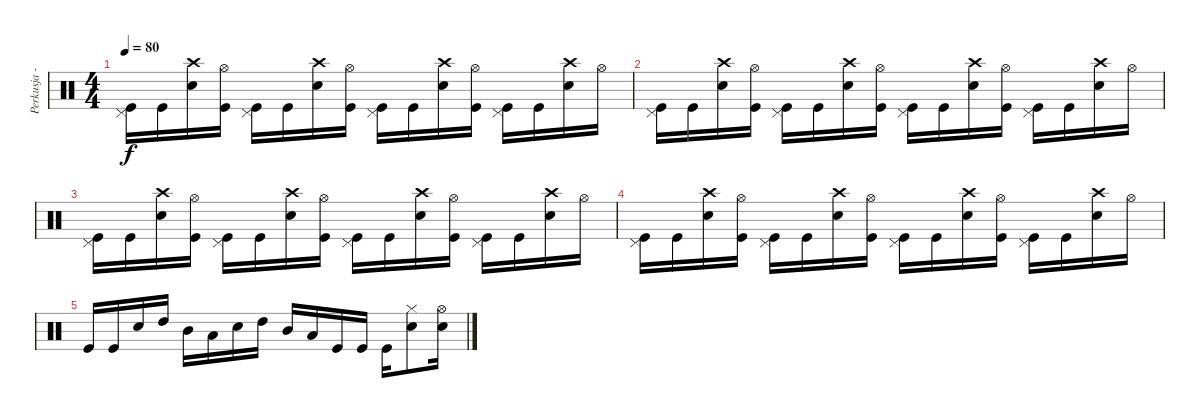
\track ("Perkusja - Krzyzyk" "Perkusja -") {instrument percussion}
\staff {score}
\articulation defaults
\ts (4 4)
\tempo 80
\clef neutral
\ks c
("Pedal Hi-Hat (hit)" "Kick (hit)").16{dy f} "Kick (hit)".16 ("Crash high (hit)" "Snare (hit) 2").16 ("Hi-Hat (open)" "Kick (hit)").16 ("Pedal Hi-Hat (hit)" "Kick (hit)").16 "Kick (hit)".16 ("Crash high (hit)" "Snare (hit) 2").16 ("Hi-Hat (open)" "Kick (hit)").16 ("Pedal Hi-Hat (hit)" "Kick (hit)").16 "Kick (hit)".16 ("Crash high (hit)" "Snare (hit) 2").16 ("Hi-Hat (open)" "Kick (hit)").16 ("Pedal Hi-Hat (hit)" "Kick (hit)").16 "Kick (hit)".16 ("Crash high (hit)" "Snare (hit) 2").16 "Hi-Hat (open)".16 |
("Pedal Hi-Hat (hit)" "Kick (hit)").16 "Kick (hit)".16 ("Crash high (hit)" "Snare (hit) 2").16 ("Hi-Hat (open)" "Kick (hit)").16 ("Pedal Hi-Hat (hit)" "Kick (hit)").16 "Kick (hit)".16 ("Crash high (hit)" "Snare (hit) 2").16 ("Hi-Hat (open)" "Kick (hit)").16 ("Pedal Hi-Hat (hit)" "Kick (hit)").16 "Kick (hit)".16 ("Crash high (hit)" "Snare (hit) 2").16 ("Hi-Hat (open)" "Kick (hit)").16 ("Pedal Hi-Hat (hit)" "Kick (hit)").16 "Kick (hit)".16 ("Crash high (hit)" "Snare (hit) 2").16 "Hi-Hat (open)".16 |
("Pedal Hi-Hat (hit)" "Kick (hit)").16 "Kick (hit)".16 ("Crash high (hit)" "Snare (hit) 2").16 ("Hi-Hat (open)" "Kick (hit)").16 ("Pedal Hi-Hat (hit)" "Kick (hit)").16 "Kick (hit)".16 ("Crash high (hit)" "Snare (hit) 2").16 ("Hi-Hat (open)" "Kick (hit)").16 ("Pedal Hi-Hat (hit)" "Kick (hit)").16 "Kick (hit)".16 ("Crash high (hit)" "Snare (hit) 2").16 ("Hi-Hat (open)" "Kick (hit)").16 ("Pedal Hi-Hat (hit)" "Kick (hit)").16 "Kick (hit)".16 ("Crash high (hit)" "Snare (hit) 2").16 "Hi-Hat (open)".16 |
("Pedal Hi-Hat (hit)" "Kick (hit)").16 "Kick (hit)".16 ("Crash high (hit)" "Snare (hit) 2").16 ("Hi-Hat (open)" "Kick (hit)").16 ("Pedal Hi-Hat (hit)" "Kick (hit)").16 "Kick (hit)".16 ("Crash high (hit)" "Snare (hit) 2").16 ("Hi-Hat (open)" "Kick (hit)").16 ("Pedal Hi-Hat (hit)" "Kick (hit)").16 "Kick (hit)".16 ("Crash high (hit)" "Snare (hit) 2").16 ("Hi-Hat (open)" "Kick (hit)").16 ("Pedal Hi-Hat (hit)" "Kick (hit)").16 "Kick (hit)".16 ("Crash high (hit)" "Snare (hit) 2").16 "Hi-Hat (open)".16 |
"Kick (hit)".16 "Kick (hit)".16 "Snare (hit) 2".16 "High Tom (hit)".16 "Mid Tom (hit)".16 "Low Tom (hit)".16 "Snare (hit) 2".16 "High Tom (hit)".16 "Mid Tom (hit)".16 "Low Tom (hit)".16 "Kick (hit)".16 "Kick (hit)".16 "Kick (hit)".16 ("Hi-Hat (closed)" "Snare (hit) 2").8 ("Hi-Hat (open)" "Snare (hit) 2").16
